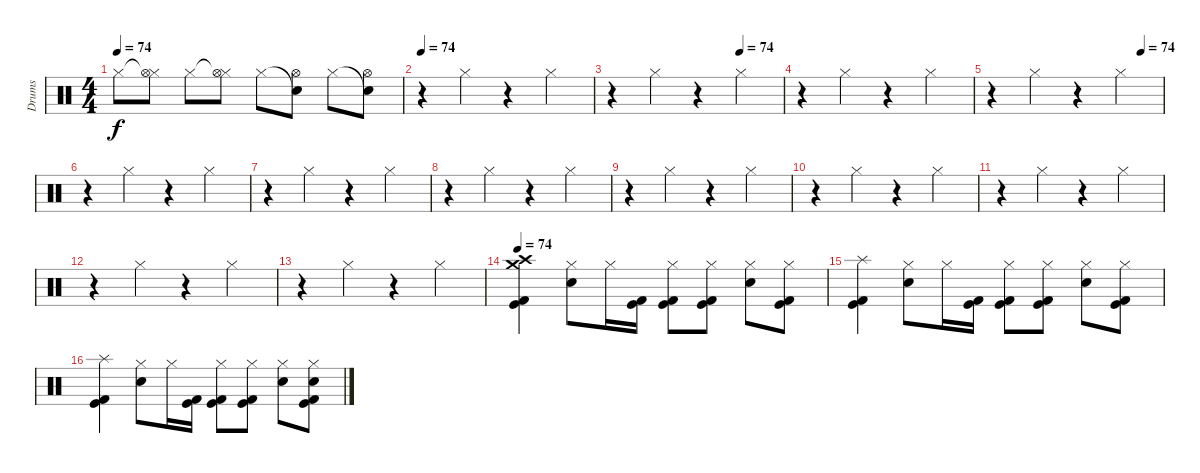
\track ("Drums" "Drums") {instrument percussion}
\staff {score}
\articulation defaults
\ts (4 4)
\tempo 74
\clef neutral
\ks c "Hi-Hat (closed)".8{dy f}
("Hi-Hat (closed)"{t} "Hi-Hat (open)").8 "Hi-Hat (closed)".8 ("Hi-Hat (closed)"{t} "Hi-Hat (open)").8 "Hi-Hat (closed)".8 ("Snare (hit)"{t} "Hi-Hat (open)").8 "Hi-Hat (closed)".8 ("Snare (hit)"{t} "Hi-Hat (open)").8 |
\tempo 74
r.4 "Hi-Hat (closed)".4 r.4 "Hi-Hat (closed)".4 |
\tempo (74 0.75)
r.4 "Hi-Hat (closed)".4 r.4 "Hi-Hat (closed)".4 |
r.4 "Hi-Hat (closed)".4 r.4 "Hi-Hat (closed)".4 |
\tempo (74 0.875)
r.4 "Hi-Hat (closed)".4 r.4 "Hi-Hat (closed)".4 |
r.4 "Hi-Hat (closed)".4 r.4 "Hi-Hat (closed)".4 |
r.4 "Hi-Hat (closed)".4 r.4 "Hi-Hat (closed)".4 |
r.4 "Hi-Hat (closed)".4 r.4 "Hi-Hat (closed)".4 |
r.4 "Hi-Hat (closed)".4 r.4 "Hi-Hat (closed)".4 |
r.4 "Hi-Hat (closed)".4 r.4 "Hi-Hat (closed)".4 |
r.4 "Hi-Hat (closed)".4 r.4 "Hi-Hat (closed)".4 |
r.4 "Hi-Hat (closed)".4 r.4 "Hi-Hat (closed)".4 |
r.4 "Hi-Hat (closed)".4 r.4 "Hi-Hat (closed)".4 |
\tempo 74
("Crash medium (hit)" "Crash high (hit)" "Kick (hit) 2" "Kick (hit)").4 ("Hi-Hat (closed)" "Electric Snare (hit)").8 "Hi-Hat (closed)".16 ("Kick (hit) 2" "Kick (hit)").16 ("Hi-Hat (closed)" "Kick (hit) 2" "Kick (hit)").8 ("Hi-Hat (closed)" "Kick (hit)" "Kick (hit) 2").8 ("Hi-Hat (closed)" "Electric Snare (hit)").8 ("Hi-Hat (closed)" "Kick (hit) 2" "Kick (hit)").8 |
("Splash (hit)" "Kick (hit) 2" "Kick (hit)").4 ("Hi-Hat (closed)" "Electric Snare (hit)").8 "Hi-Hat (closed)".16 ("Kick (hit) 2" "Kick (hit)").16 ("Hi-Hat (closed)" "Kick (hit) 2" "Kick (hit)").8 ("Hi-Hat (closed)" "Kick (hit)" "Kick (hit) 2").8 ("Hi-Hat (closed)" "Electric Snare (hit)").8 ("Hi-Hat (closed)" "Kick (hit) 2" "Kick (hit)").8 |
("Splash (hit)" "Kick (hit) 2" "Kick (hit)").4 ("Hi-Hat (closed)" "Electric Snare (hit)").8 "Hi-Hat (closed)".16 ("Kick (hit) 2" "Kick (hit)").16 ("Hi-Hat (closed)" "Kick (hit) 2" "Kick (hit)").8 ("Hi-Hat (closed)" "Kick (hit)" "Kick (hit) 2").8 ("Hi-Hat (closed)" "Electric Snare (hit)").8 ("Hi-Hat (closed)" "Electric Snare (hit)" "Kick (hit) 2" "Kick (hit)").8
